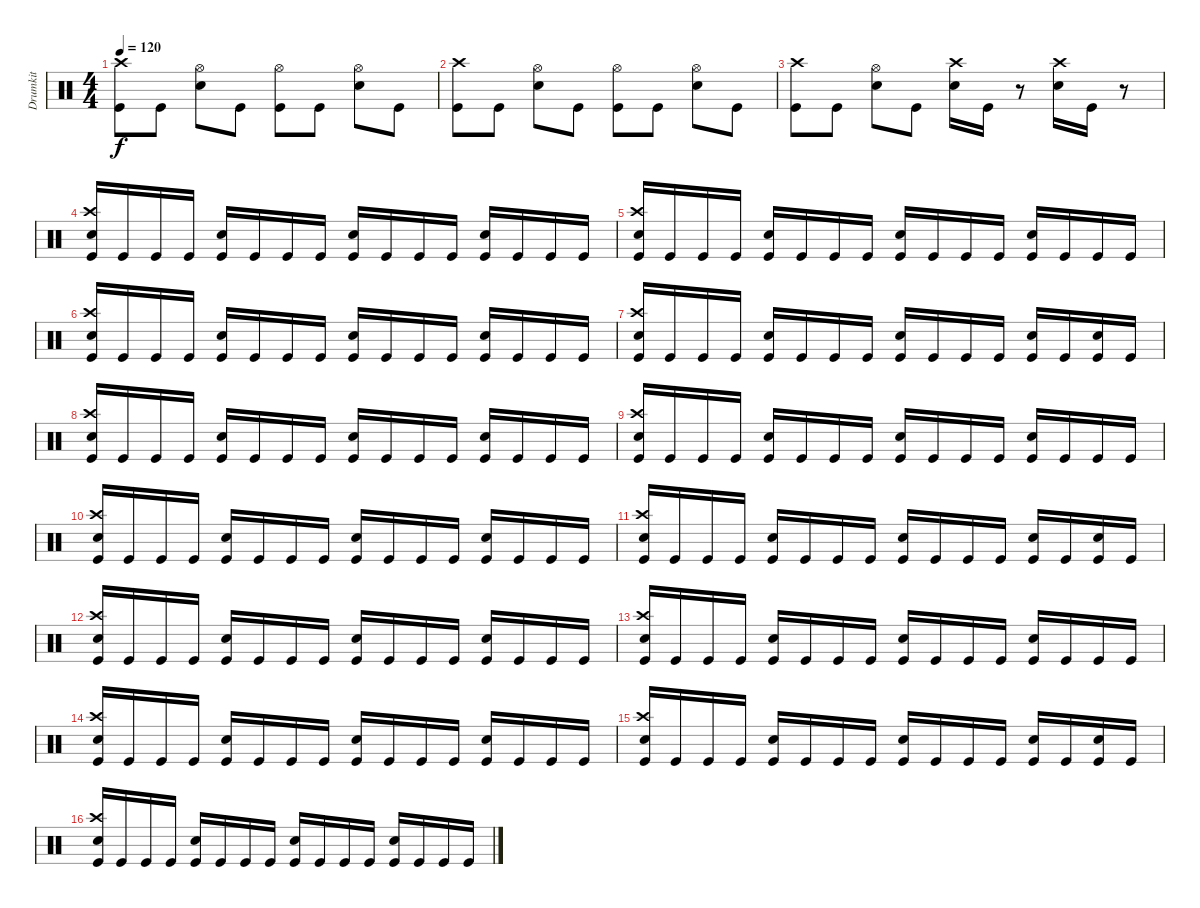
\track ("Drumkit" "Drumkit") {instrument percussion}
\staff {score}
\articulation defaults
\ts (4 4)
\tempo 120
\clef neutral
\ks c
("Kick (hit)" "Crash high (hit)").8{dy f} "Kick (hit)".8 ("Snare (hit) 2" "Hi-Hat (open)").8 "Kick (hit)".8 ("Kick (hit)" "Hi-Hat (open)").8 "Kick (hit)".8 ("Snare (hit) 2" "Hi-Hat (open)").8 "Kick (hit)".8 |
("Kick (hit)" "Crash high (hit)").8 "Kick (hit)".8 ("Snare (hit) 2" "Hi-Hat (open)").8 "Kick (hit)".8 ("Kick (hit)" "Hi-Hat (open)").8 "Kick (hit)".8 ("Snare (hit) 2" "Hi-Hat (open)").8 "Kick (hit)".8 |
("Kick (hit)" "Crash high (hit)").8 "Kick (hit)".8 ("Snare (hit) 2" "Hi-Hat (open)").8 "Kick (hit)".8 ("Crash high (hit)" "Snare (hit) 2").16 "Kick (hit)".16 r.8 ("Crash high (hit)" "Snare (hit) 2").16 "Kick (hit)".16 r.8 |
("Kick (hit)" "Snare (hit) 2" "Crash high (hit)").16 "Kick (hit)".16 "Kick (hit)".16 "Kick (hit)".16 ("Kick (hit)" "Snare (hit) 2").16 "Kick (hit)".16 "Kick (hit)".16 "Kick (hit)".16 ("Kick (hit)" "Snare (hit) 2").16 "Kick (hit)".16 "Kick (hit)".16 "Kick (hit)".16 ("Kick (hit)" "Snare (hit) 2").16 "Kick (hit)".16 "Kick (hit)".16 "Kick (hit)".16 |
("Kick (hit)" "Snare (hit) 2" "Crash high (hit)").16 "Kick (hit)".16 "Kick (hit)".16 "Kick (hit)".16 ("Kick (hit)" "Snare (hit) 2").16 "Kick (hit)".16 "Kick (hit)".16 "Kick (hit)".16 ("Kick (hit)" "Snare (hit) 2").16 "Kick (hit)".16 "Kick (hit)".16 "Kick (hit)".16 ("Kick (hit)" "Snare (hit) 2").16 "Kick (hit)".16 "Kick (hit)".16 "Kick (hit)".16 |
("Kick (hit)" "Snare (hit) 2" "Crash high (hit)").16 "Kick (hit)".16 "Kick (hit)".16 "Kick (hit)".16 ("Kick (hit)" "Snare (hit) 2").16 "Kick (hit)".16 "Kick (hit)".16 "Kick (hit)".16 ("Kick (hit)" "Snare (hit) 2").16 "Kick (hit)".16 "Kick (hit)".16 "Kick (hit)".16 ("Kick (hit)" "Snare (hit) 2").16 "Kick (hit)".16 "Kick (hit)".16 "Kick (hit)".16 |
("Kick (hit)" "Snare (hit) 2" "Crash high (hit)").16 "Kick (hit)".16 "Kick (hit)".16 "Kick (hit)".16 ("Kick (hit)" "Snare (hit) 2").16 "Kick (hit)".16 "Kick (hit)".16 "Kick (hit)".16 ("Kick (hit)" "Snare (hit) 2").16 "Kick (hit)".16 "Kick (hit)".16 "Kick (hit)".16 ("Kick (hit)" "Snare (hit) 2").16 "Kick (hit)".16 ("Kick (hit)" "Snare (hit) 2").16 "Kick (hit)".16 |
("Kick (hit)" "Snare (hit) 2" "Crash high (hit)").16 "Kick (hit)".16 "Kick (hit)".16 "Kick (hit)".16 ("Kick (hit)" "Snare (hit) 2").16 "Kick (hit)".16 "Kick (hit)".16 "Kick (hit)".16 ("Kick (hit)" "Snare (hit) 2").16 "Kick (hit)".16 "Kick (hit)".16 "Kick (hit)".16 ("Kick (hit)" "Snare (hit) 2").16 "Kick (hit)".16 "Kick (hit)".16 "Kick (hit)".16 |
("Kick (hit)" "Snare (hit) 2" "Crash high (hit)").16 "Kick (hit)".16 "Kick (hit)".16 "Kick (hit)".16 ("Kick (hit)" "Snare (hit) 2").16 "Kick (hit)".16 "Kick (hit)".16 "Kick (hit)".16 ("Kick (hit)" "Snare (hit) 2").16 "Kick (hit)".16 "Kick (hit)".16 "Kick (hit)".16 ("Kick (hit)" "Snare (hit) 2").16 "Kick (hit)".16 "Kick (hit)".16 "Kick (hit)".16 |
("Kick (hit)" "Snare (hit) 2" "Crash high (hit)").16 "Kick (hit)".16 "Kick (hit)".16 "Kick (hit)".16 ("Kick (hit)" "Snare (hit) 2").16 "Kick (hit)".16 "Kick (hit)".16 "Kick (hit)".16 ("Kick (hit)" "Snare (hit) 2").16 "Kick (hit)".16 "Kick (hit)".16 "Kick (hit)".16 ("Kick (hit)" "Snare (hit) 2").16 "Kick (hit)".16 "Kick (hit)".16 "Kick (hit)".16 |
("Kick (hit)" "Snare (hit) 2" "Crash high (hit)").16 "Kick (hit)".16 "Kick (hit)".16 "Kick (hit)".16 ("Kick (hit)" "Snare (hit) 2").16 "Kick (hit)".16 "Kick (hit)".16 "Kick (hit)".16 ("Kick (hit)" "Snare (hit) 2").16 "Kick (hit)".16 "Kick (hit)".16 "Kick (hit)".16 ("Kick (hit)" "Snare (hit) 2").16 "Kick (hit)".16 ("Kick (hit)" "Snare (hit) 2").16 "Kick (hit)".16 |
("Kick (hit)" "Snare (hit) 2" "Crash high (hit)").16 "Kick (hit)".16 "Kick (hit)".16 "Kick (hit)".16 ("Kick (hit)" "Snare (hit) 2").16 "Kick (hit)".16 "Kick (hit)".16 "Kick (hit)".16 ("Kick (hit)" "Snare (hit) 2").16 "Kick (hit)".16 "Kick (hit)".16 "Kick (hit)".16 ("Kick (hit)" "Snare (hit) 2").16 "Kick (hit)".16 "Kick (hit)".16 "Kick (hit)".16 |
("Kick (hit)" "Snare (hit) 2" "Crash high (hit)").16 "Kick (hit)".16 "Kick (hit)".16 "Kick (hit)".16 ("Kick (hit)" "Snare (hit) 2").16 "Kick (hit)".16 "Kick (hit)".16 "Kick (hit)".16 ("Kick (hit)" "Snare (hit) 2").16 "Kick (hit)".16 "Kick (hit)".16 "Kick (hit)".16 ("Kick (hit)" "Snare (hit) 2").16 "Kick (hit)".16 "Kick (hit)".16 "Kick (hit)".16 |
("Kick (hit)" "Snare (hit) 2" "Crash high (hit)").16 "Kick (hit)".16 "Kick (hit)".16 "Kick (hit)".16 ("Kick (hit)" "Snare (hit) 2").16 "Kick (hit)".16 "Kick (hit)".16 "Kick (hit)".16 ("Kick (hit)" "Snare (hit) 2").16 "Kick (hit)".16 "Kick (hit)".16 "Kick (hit)".16 ("Kick (hit)" "Snare (hit) 2").16 "Kick (hit)".16 "Kick (hit)".16 "Kick (hit)".16 |
("Kick (hit)" "Snare (hit) 2" "Crash high (hit)").16 "Kick (hit)".16 "Kick (hit)".16 "Kick (hit)".16 ("Kick (hit)" "Snare (hit) 2").16 "Kick (hit)".16 "Kick (hit)".16 "Kick (hit)".16 ("Kick (hit)" "Snare (hit) 2").16 "Kick (hit)".16 "Kick (hit)".16 "Kick (hit)".16 ("Kick (hit)" "Snare (hit) 2").16 "Kick (hit)".16 ("Kick (hit)" "Snare (hit) 2").16 "Kick (hit)".16 |
("Kick (hit)" "Snare (hit) 2" "Crash high (hit)").16 "Kick (hit)".16 "Kick (hit)".16 "Kick (hit)".16 ("Kick (hit)" "Snare (hit) 2").16 "Kick (hit)".16 "Kick (hit)".16 "Kick (hit)".16 ("Kick (hit)" "Snare (hit) 2").16 "Kick (hit)".16 "Kick (hit)".16 "Kick (hit)".16 ("Kick (hit)" "Snare (hit) 2").16 "Kick (hit)".16 "Kick (hit)".16 "Kick (hit)".16
